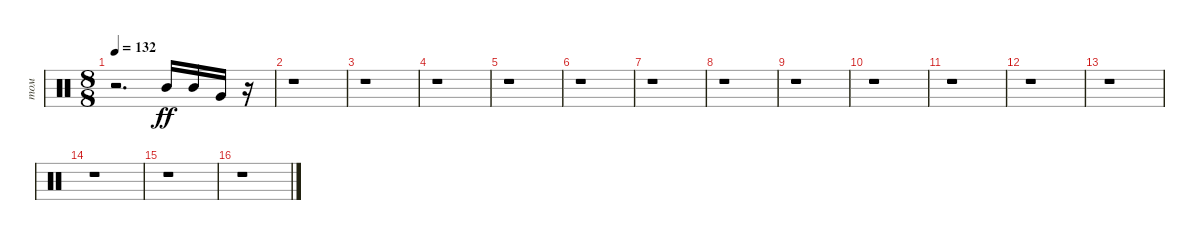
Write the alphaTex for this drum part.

\track ("том" "том") {instrument percussion}
\staff {score}
\articulation defaults
\ts (8 8)
\tempo 132
\clef neutral
\ks c
r.2{d dy f} "Mid Tom (hit)".16{dy ff} "Mid Tom (hit)".16 "Very Low Tom (hit)".16 r.16 |
r.1 |
r.1 |
r.1 |
r.1 |
r.1 |
r.1 |
r.1 |
r.1 |
r.1 |
r.1 |
r.1 |
r.1 |
r.1 |
r.1 |
r.1
